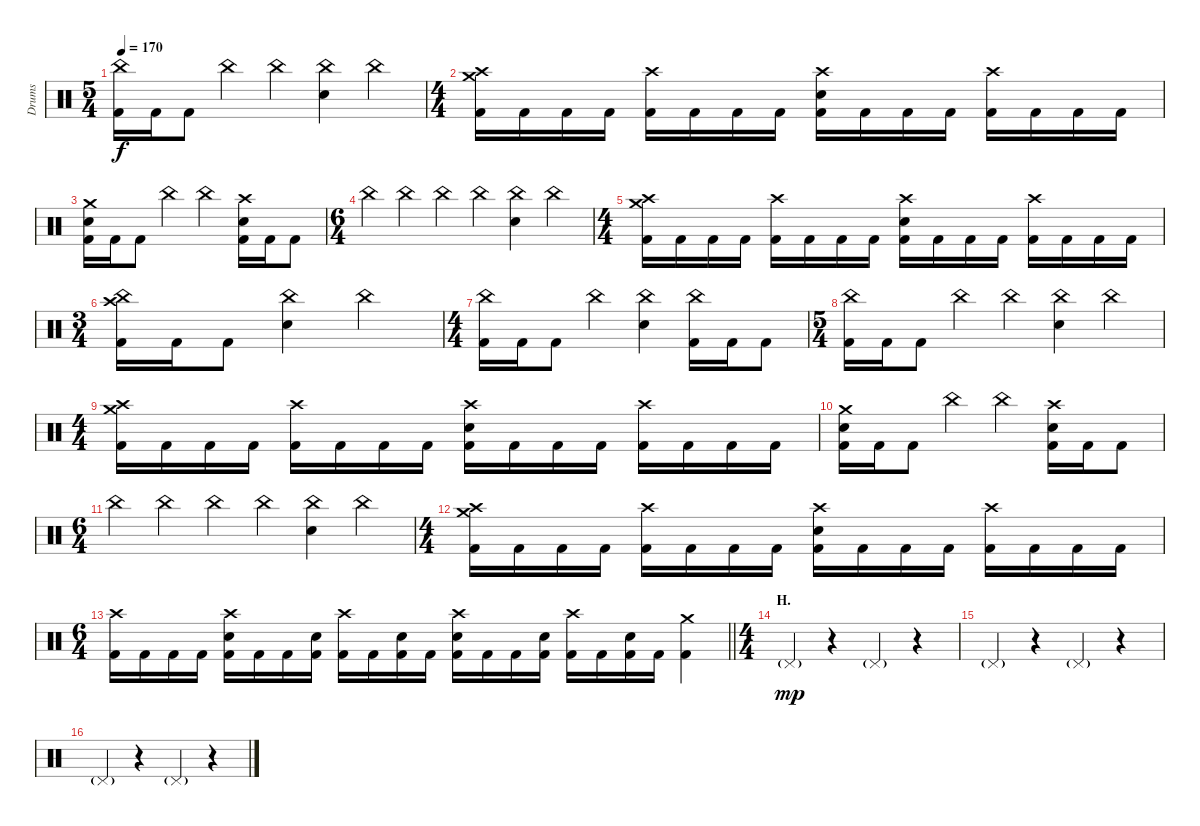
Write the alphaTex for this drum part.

\track ("Drums" "Drums") {instrument percussion}
\staff {score}
\articulation defaults
\ts (5 4)
\tempo 170
\clef neutral
\ks c
("China (hit)" "Kick (hit) 2").16{dy f} "Kick (hit) 2".16 "Kick (hit) 2".8 "China (hit)".4 "China (hit)".4 ("China (hit)" "Electric Snare (hit)").4 "China (hit)".4 |
\ts (4 4)
("Crash medium (hit)" "Crash high (hit)" "Kick (hit) 2").16 "Kick (hit) 2".16 "Kick (hit) 2".16 "Kick (hit) 2".16 ("Crash high (hit)" "Kick (hit) 2").16 "Kick (hit) 2".16 "Kick (hit) 2".16 "Kick (hit) 2".16 ("Crash high (hit)" "Electric Snare (hit)" "Kick (hit) 2").16 "Kick (hit) 2".16 "Kick (hit) 2".16 "Kick (hit) 2".16 ("Crash high (hit)" "Kick (hit) 2").16 "Kick (hit) 2".16 "Kick (hit) 2".16 "Kick (hit) 2".16 |
("Crash medium (hit)" "Electric Snare (hit)" "Kick (hit) 2").16 "Kick (hit) 2".16 "Kick (hit) 2".8 "China (hit)".4 "China (hit)".4 ("Crash high (hit)" "Electric Snare (hit)" "Kick (hit) 2").16 "Kick (hit) 2".16 "Kick (hit) 2".8 |
\ts (6 4)
"China (hit)".4 "China (hit)".4 "China (hit)".4 "China (hit)".4 ("China (hit)" "Electric Snare (hit)").4 "China (hit)".4 |
\ts (4 4)
("Crash medium (hit)" "Crash high (hit)" "Kick (hit) 2").16 "Kick (hit) 2".16 "Kick (hit) 2".16 "Kick (hit) 2".16 ("Crash high (hit)" "Kick (hit) 2").16 "Kick (hit) 2".16 "Kick (hit) 2".16 "Kick (hit) 2".16 ("Crash high (hit)" "Electric Snare (hit)" "Kick (hit) 2").16 "Kick (hit) 2".16 "Kick (hit) 2".16 "Kick (hit) 2".16 ("Crash high (hit)" "Kick (hit) 2").16 "Kick (hit) 2".16 "Kick (hit) 2".16 "Kick (hit) 2".16 |
\ts (3 4)
("China (hit)" "Crash high (hit)" "Kick (hit) 2").16 "Kick (hit) 2".16 "Kick (hit) 2".8 ("China (hit)" "Electric Snare (hit)").4 "China (hit)".4 |
\ts (4 4)
("China (hit)" "Kick (hit) 2").16 "Kick (hit) 2".16 "Kick (hit) 2".8 "China (hit)".4 ("China (hit)" "Electric Snare (hit)").4 ("China (hit)" "Kick (hit) 2").16 "Kick (hit) 2".16 "Kick (hit) 2".8 |
\ts (5 4)
("China (hit)" "Kick (hit) 2").16 "Kick (hit) 2".16 "Kick (hit) 2".8 "China (hit)".4 "China (hit)".4 ("China (hit)" "Electric Snare (hit)").4 "China (hit)".4 |
\ts (4 4)
("Crash medium (hit)" "Crash high (hit)" "Kick (hit) 2").16 "Kick (hit) 2".16 "Kick (hit) 2".16 "Kick (hit) 2".16 ("Crash high (hit)" "Kick (hit) 2").16 "Kick (hit) 2".16 "Kick (hit) 2".16 "Kick (hit) 2".16 ("Crash high (hit)" "Electric Snare (hit)" "Kick (hit) 2").16 "Kick (hit) 2".16 "Kick (hit) 2".16 "Kick (hit) 2".16 ("Crash high (hit)" "Kick (hit) 2").16 "Kick (hit) 2".16 "Kick (hit) 2".16 "Kick (hit) 2".16 |
("Crash medium (hit)" "Electric Snare (hit)" "Kick (hit) 2").16 "Kick (hit) 2".16 "Kick (hit) 2".8 "China (hit)".4 "China (hit)".4 ("Crash high (hit)" "Electric Snare (hit)" "Kick (hit) 2").16 "Kick (hit) 2".16 "Kick (hit) 2".8 |
\ts (6 4)
"China (hit)".4 "China (hit)".4 "China (hit)".4 "China (hit)".4 ("China (hit)" "Electric Snare (hit)").4 "China (hit)".4 |
\ts (4 4)
("Crash medium (hit)" "Crash high (hit)" "Kick (hit) 2").16 "Kick (hit) 2".16 "Kick (hit) 2".16 "Kick (hit) 2".16 ("Crash high (hit)" "Kick (hit) 2").16 "Kick (hit) 2".16 "Kick (hit) 2".16 "Kick (hit) 2".16 ("Crash high (hit)" "Electric Snare (hit)" "Kick (hit) 2").16 "Kick (hit) 2".16 "Kick (hit) 2".16 "Kick (hit) 2".16 ("Crash high (hit)" "Kick (hit) 2").16 "Kick (hit) 2".16 "Kick (hit) 2".16 "Kick (hit) 2".16 |
\ts (6 4)
\barLineRight lightlight
("Crash high (hit)" "Kick (hit) 2").16 "Kick (hit) 2".16 "Kick (hit) 2".16 "Kick (hit) 2".16 ("Crash high (hit)" "Electric Snare (hit)" "Kick (hit) 2").16 "Kick (hit) 2".16 "Kick (hit) 2".16 ("Electric Snare (hit)" "Kick (hit) 2").16 ("Crash high (hit)" "Kick (hit) 2").16 "Kick (hit) 2".16 ("Electric Snare (hit)" "Kick (hit) 2").16 "Kick (hit) 2".16 ("Crash high (hit)" "Electric Snare (hit)" "Kick (hit) 2").16 "Kick (hit) 2".16 "Kick (hit) 2".16 ("Electric Snare (hit)" "Kick (hit) 2").16 ("Crash high (hit)" "Kick (hit) 2").16 "Kick (hit) 2".16 ("Electric Snare (hit)" "Kick (hit) 2").16 "Kick (hit) 2".16 ("Crash medium (hit)" "Kick (hit) 2").4 |
\ts (4 4)
\section ("" "H.")
"Pedal Hi-Hat (hit)"{g}.4{dy mp} r.4 "Pedal Hi-Hat (hit)"{g}.4 r.4 |
"Pedal Hi-Hat (hit)"{g}.4 r.4 "Pedal Hi-Hat (hit)"{g}.4 r.4 |
"Pedal Hi-Hat (hit)"{g}.4 r.4 "Pedal Hi-Hat (hit)"{g}.4 r.4
